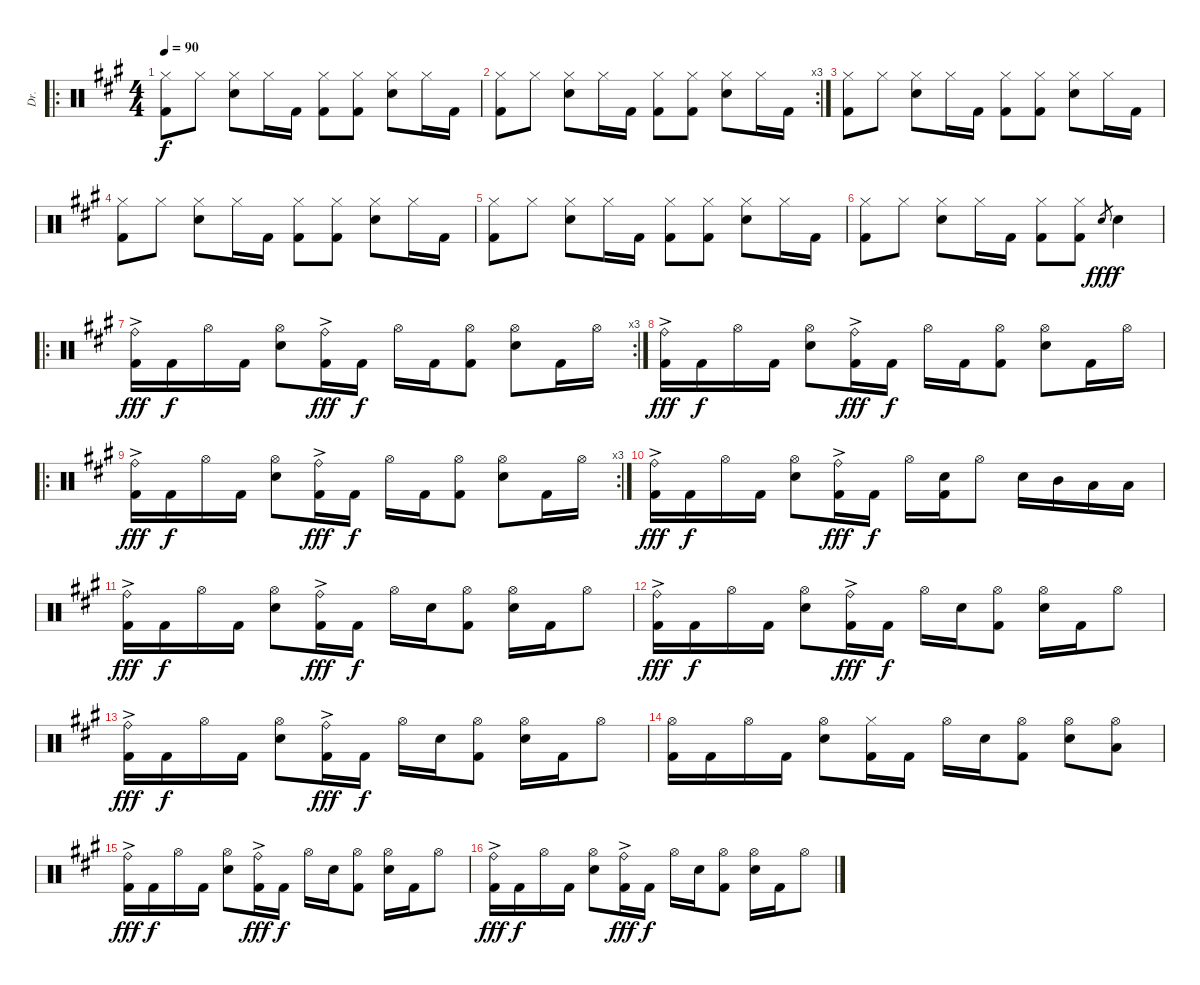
\track ("Dr." "Dr.") {instrument percussion}
\staff {score}
\articulation defaults
\ro
\ts (4 4)
\tempo 90
\clef neutral
\ks a
("Hi-Hat (closed)" "Kick (hit) 2").8{dy f} "Hi-Hat (closed)".8 ("Hi-Hat (closed)" "Electric Snare (hit)").8 "Hi-Hat (closed)".16 "Kick (hit) 2".16 ("Hi-Hat (closed)" "Kick (hit) 2").8 ("Hi-Hat (closed)" "Kick (hit) 2").8 ("Hi-Hat (closed)" "Electric Snare (hit)").8 "Hi-Hat (closed)".16 "Kick (hit) 2".16 |
\rc 3
("Hi-Hat (closed)" "Kick (hit) 2").8 "Hi-Hat (closed)".8 ("Hi-Hat (closed)" "Electric Snare (hit)").8 "Hi-Hat (closed)".16 "Kick (hit) 2".16 ("Hi-Hat (closed)" "Kick (hit) 2").8 ("Hi-Hat (closed)" "Kick (hit) 2").8 ("Hi-Hat (closed)" "Electric Snare (hit)").8 "Hi-Hat (closed)".16 "Kick (hit) 2".16 |
("Hi-Hat (closed)" "Kick (hit) 2").8 "Hi-Hat (closed)".8 ("Hi-Hat (closed)" "Electric Snare (hit)").8 "Hi-Hat (closed)".16 "Kick (hit) 2".16 ("Hi-Hat (closed)" "Kick (hit) 2").8 ("Hi-Hat (closed)" "Kick (hit) 2").8 ("Hi-Hat (closed)" "Electric Snare (hit)").8 "Hi-Hat (closed)".16 "Kick (hit) 2".16 |
("Hi-Hat (closed)" "Kick (hit) 2").8 "Hi-Hat (closed)".8 ("Hi-Hat (closed)" "Electric Snare (hit)").8 "Hi-Hat (closed)".16 "Kick (hit) 2".16 ("Hi-Hat (closed)" "Kick (hit) 2").8 ("Hi-Hat (closed)" "Kick (hit) 2").8 ("Hi-Hat (closed)" "Electric Snare (hit)").8 "Hi-Hat (closed)".16 "Kick (hit) 2".16 |
("Hi-Hat (closed)" "Kick (hit) 2").8 "Hi-Hat (closed)".8 ("Hi-Hat (closed)" "Electric Snare (hit)").8 "Hi-Hat (closed)".16 "Kick (hit) 2".16 ("Hi-Hat (closed)" "Kick (hit) 2").8 ("Hi-Hat (closed)" "Kick (hit) 2").8 ("Hi-Hat (closed)" "Electric Snare (hit)").8 "Hi-Hat (closed)".16 "Kick (hit) 2".16 |
("Hi-Hat (closed)" "Kick (hit) 2").8 "Hi-Hat (closed)".8 ("Hi-Hat (closed)" "Electric Snare (hit)").8 "Hi-Hat (closed)".16 "Kick (hit) 2".16 ("Hi-Hat (closed)" "Kick (hit) 2").8 ("Hi-Hat (closed)" "Kick (hit) 2").8 "Electric Snare (hit)".8{gr dy fff} "Electric Snare (hit)".4{dy f} |
\ro
\rc 3
("Ride (bell)"{ac} "Kick (hit) 2"{ac}).16{dy fff} "Kick (hit) 2".16{dy f} "Hi-Hat (open)".16 "Kick (hit) 2".16 ("Hi-Hat (open)" "Electric Snare (hit)").8 ("Ride (bell)"{ac} "Kick (hit) 2"{ac}).16{dy fff} "Kick (hit) 2".16{dy f} "Hi-Hat (open)".16 "Kick (hit) 2".16 ("Hi-Hat (open)" "Kick (hit) 2").8 ("Hi-Hat (open)" "Electric Snare (hit)").8 "Kick (hit) 2".16 "Hi-Hat (open)".16 |
("Ride (bell)"{ac} "Kick (hit) 2"{ac}).16{dy fff} "Kick (hit) 2".16{dy f} "Hi-Hat (open)".16 "Kick (hit) 2".16 ("Hi-Hat (open)" "Electric Snare (hit)").8 ("Ride (bell)"{ac} "Kick (hit) 2"{ac}).16{dy fff} "Kick (hit) 2".16{dy f} "Hi-Hat (open)".16 "Kick (hit) 2".16 ("Hi-Hat (open)" "Kick (hit) 2").8 ("Hi-Hat (open)" "Electric Snare (hit)").8 "Kick (hit) 2".16 "Hi-Hat (open)".16 |
\ro
\rc 3
("Ride (bell)"{ac} "Kick (hit) 2"{ac}).16{dy fff} "Kick (hit) 2".16{dy f} "Hi-Hat (open)".16 "Kick (hit) 2".16 ("Hi-Hat (open)" "Electric Snare (hit)").8 ("Ride (bell)"{ac} "Kick (hit) 2"{ac}).16{dy fff} "Kick (hit) 2".16{dy f} "Hi-Hat (open)".16 "Kick (hit) 2".16 ("Hi-Hat (open)" "Kick (hit) 2").8 ("Hi-Hat (open)" "Electric Snare (hit)").8 "Kick (hit) 2".16 "Hi-Hat (open)".16 |
("Ride (bell)"{ac} "Kick (hit) 2"{ac}).16{dy fff} "Kick (hit) 2".16{dy f} "Hi-Hat (open)".16 "Kick (hit) 2".16 ("Hi-Hat (open)" "Electric Snare (hit)").8 ("Ride (bell)"{ac} "Kick (hit) 2"{ac}).16{dy fff} "Kick (hit) 2".16{dy f} "Hi-Hat (open)".16 ("Electric Snare (hit)" "Kick (hit) 2").16 "Hi-Hat (open)".8 "Electric Snare (hit)".16 "Mid Tom (hit)".16 "Low Tom (hit)".16 "Low Tom (hit)".16 |
("Ride (bell)"{ac} "Kick (hit) 2"{ac}).16{dy fff} "Kick (hit) 2".16{dy f} "Hi-Hat (open)".16 "Kick (hit) 2".16 ("Hi-Hat (open)" "Electric Snare (hit)").8 ("Ride (bell)"{ac} "Kick (hit) 2"{ac}).16{dy fff} "Kick (hit) 2".16{dy f} "Hi-Hat (open)".16 "Electric Snare (hit)".16 ("Hi-Hat (open)" "Kick (hit) 2").8 ("Hi-Hat (open)" "Electric Snare (hit)").16 "Kick (hit) 2".16 "Hi-Hat (open)".8 |
("Ride (bell)"{ac} "Kick (hit) 2"{ac}).16{dy fff} "Kick (hit) 2".16{dy f} "Hi-Hat (open)".16 "Kick (hit) 2".16 ("Hi-Hat (open)" "Electric Snare (hit)").8 ("Ride (bell)"{ac} "Kick (hit) 2"{ac}).16{dy fff} "Kick (hit) 2".16{dy f} "Hi-Hat (open)".16 "Electric Snare (hit)".16 ("Hi-Hat (open)" "Kick (hit) 2").8 ("Hi-Hat (open)" "Electric Snare (hit)").16 "Kick (hit) 2".16 "Hi-Hat (open)".8 |
("Ride (bell)"{ac} "Kick (hit) 2"{ac}).16{dy fff} "Kick (hit) 2".16{dy f} "Hi-Hat (open)".16 "Kick (hit) 2".16 ("Hi-Hat (open)" "Electric Snare (hit)").8 ("Ride (bell)"{ac} "Kick (hit) 2"{ac}).16{dy fff} "Kick (hit) 2".16{dy f} "Hi-Hat (open)".16 "Electric Snare (hit)".16 ("Hi-Hat (open)" "Kick (hit) 2").8 ("Hi-Hat (open)" "Electric Snare (hit)").16 "Kick (hit) 2".16 "Hi-Hat (open)".8 |
("Hi-Hat (open)" "Kick (hit) 2").16 "Kick (hit) 2".16 "Hi-Hat (open)".16 "Kick (hit) 2".16 ("Hi-Hat (open)" "Electric Snare (hit)").8 ("Hi-Hat (closed)" "Kick (hit) 2").16 "Kick (hit) 2".16 "Hi-Hat (open)".16 "Electric Snare (hit)".16 ("Hi-Hat (open)" "Kick (hit) 2").8 ("Hi-Hat (open)" "Electric Snare (hit)").8 ("Hi-Hat (open)" "Low Tom (hit)").8 |
("Ride (bell)"{ac} "Kick (hit) 2"{ac}).16{dy fff} "Kick (hit) 2".16{dy f} "Hi-Hat (open)".16 "Kick (hit) 2".16 ("Hi-Hat (open)" "Electric Snare (hit)").8 ("Ride (bell)"{ac} "Kick (hit) 2"{ac}).16{dy fff} "Kick (hit) 2".16{dy f} "Hi-Hat (open)".16 "Electric Snare (hit)".16 ("Hi-Hat (open)" "Kick (hit) 2").8 ("Hi-Hat (open)" "Electric Snare (hit)").16 "Kick (hit) 2".16 "Hi-Hat (open)".8 |
("Ride (bell)"{ac} "Kick (hit) 2"{ac}).16{dy fff} "Kick (hit) 2".16{dy f} "Hi-Hat (open)".16 "Kick (hit) 2".16 ("Hi-Hat (open)" "Electric Snare (hit)").8 ("Ride (bell)"{ac} "Kick (hit) 2"{ac}).16{dy fff} "Kick (hit) 2".16{dy f} "Hi-Hat (open)".16 "Electric Snare (hit)".16 ("Hi-Hat (open)" "Kick (hit) 2").8 ("Hi-Hat (open)" "Electric Snare (hit)").16 "Kick (hit) 2".16 "Hi-Hat (open)".8
